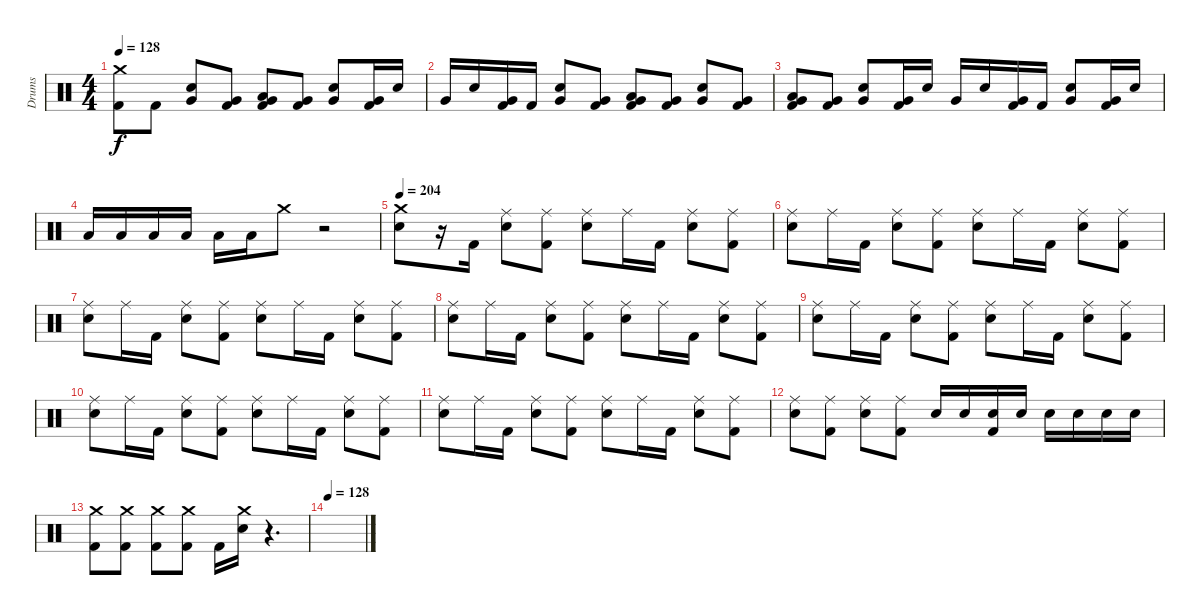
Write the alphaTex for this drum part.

\track ("Drums" "Drums") {instrument percussion}
\staff {score}
\articulation defaults
\ts (4 4)
\tempo 128
\clef neutral
\ks c
("Crash medium (hit)" "Kick (hit) 2").8{dy f} "Kick (hit) 2".8 ("Snare (hit) 2" "Very Low Tom (hit)").8 ("Kick (hit) 2" "Very Low Tom (hit)").8 ("Kick (hit) 2" "Very Low Tom (hit)" "Low Tom (hit)").8 ("Kick (hit) 2" "Very Low Tom (hit)").8 ("Snare (hit) 2" "Very Low Tom (hit)").8 ("Kick (hit) 2" "Very Low Tom (hit)").16 "Snare (hit) 2".16 |
"Very Low Tom (hit)".16 "Snare (hit) 2".16 ("Kick (hit) 2" "Very Low Tom (hit)").16 "Kick (hit) 2".16 ("Snare (hit) 2" "Very Low Tom (hit)").8 ("Kick (hit) 2" "Very Low Tom (hit)").8 ("Kick (hit) 2" "Very Low Tom (hit)" "Low Tom (hit)").8 ("Kick (hit) 2" "Very Low Tom (hit)").8 ("Snare (hit) 2" "Very Low Tom (hit)").8 ("Kick (hit) 2" "Very Low Tom (hit)").8 |
("Kick (hit) 2" "Very Low Tom (hit)" "Low Tom (hit)").8 ("Kick (hit) 2" "Very Low Tom (hit)").8 ("Snare (hit) 2" "Very Low Tom (hit)").8 ("Kick (hit) 2" "Very Low Tom (hit)").16 "Snare (hit) 2".16 "Very Low Tom (hit)".16 "Snare (hit) 2".16 ("Kick (hit) 2" "Very Low Tom (hit)").16 "Kick (hit) 2".16 ("Snare (hit) 2" "Very Low Tom (hit)").8 ("Kick (hit) 2" "Very Low Tom (hit)").16 "Snare (hit) 2".16 |
"Low Tom (hit)".16 "Low Tom (hit)".16 "Low Tom (hit)".16 "Low Tom (hit)".16 "Low Tom (hit)".16 "Low Tom (hit)".16 "Crash medium (hit)".8 r.2 |
\tempo 204
("Crash medium (hit)" "Snare (hit) 2").8 r.16 "Kick (hit) 2".16 ("Ride (middle)" "Snare (hit) 2").8 ("Ride (middle)" "Kick (hit) 2").8 ("Ride (middle)" "Snare (hit) 2").8 "Ride (middle)".16 "Kick (hit) 2".16 ("Ride (middle)" "Snare (hit) 2").8 ("Ride (middle)" "Kick (hit) 2").8 |
("Ride (middle)" "Snare (hit) 2").8 "Ride (middle)".16 "Kick (hit) 2".16 ("Ride (middle)" "Snare (hit) 2").8 ("Ride (middle)" "Kick (hit) 2").8 ("Ride (middle)" "Snare (hit) 2").8 "Ride (middle)".16 "Kick (hit) 2".16 ("Ride (middle)" "Snare (hit) 2").8 ("Ride (middle)" "Kick (hit) 2").8 |
("Ride (middle)" "Snare (hit) 2").8 "Ride (middle)".16 "Kick (hit) 2".16 ("Ride (middle)" "Snare (hit) 2").8 ("Ride (middle)" "Kick (hit) 2").8 ("Ride (middle)" "Snare (hit) 2").8 "Ride (middle)".16 "Kick (hit) 2".16 ("Ride (middle)" "Snare (hit) 2").8 ("Ride (middle)" "Kick (hit) 2").8 |
("Ride (middle)" "Snare (hit) 2").8 "Ride (middle)".16 "Kick (hit) 2".16 ("Ride (middle)" "Snare (hit) 2").8 ("Ride (middle)" "Kick (hit) 2").8 ("Ride (middle)" "Snare (hit) 2").8 "Ride (middle)".16 "Kick (hit) 2".16 ("Ride (middle)" "Snare (hit) 2").8 ("Ride (middle)" "Kick (hit) 2").8 |
("Ride (middle)" "Snare (hit) 2").8 "Ride (middle)".16 "Kick (hit) 2".16 ("Ride (middle)" "Snare (hit) 2").8 ("Ride (middle)" "Kick (hit) 2").8 ("Ride (middle)" "Snare (hit) 2").8 "Ride (middle)".16 "Kick (hit) 2".16 ("Ride (middle)" "Snare (hit) 2").8 ("Ride (middle)" "Kick (hit) 2").8 |
("Ride (middle)" "Snare (hit) 2").8 "Ride (middle)".16 "Kick (hit) 2".16 ("Ride (middle)" "Snare (hit) 2").8 ("Ride (middle)" "Kick (hit) 2").8 ("Ride (middle)" "Snare (hit) 2").8 "Ride (middle)".16 "Kick (hit) 2".16 ("Ride (middle)" "Snare (hit) 2").8 ("Ride (middle)" "Kick (hit) 2").8 |
("Ride (middle)" "Snare (hit) 2").8 "Ride (middle)".16 "Kick (hit) 2".16 ("Ride (middle)" "Snare (hit) 2").8 ("Ride (middle)" "Kick (hit) 2").8 ("Ride (middle)" "Snare (hit) 2").8 "Ride (middle)".16 "Kick (hit) 2".16 ("Ride (middle)" "Snare (hit) 2").8 ("Ride (middle)" "Kick (hit) 2").8 |
("Ride (middle)" "Snare (hit) 2").8 ("Ride (middle)" "Kick (hit) 2").8 ("Ride (middle)" "Snare (hit) 2").8 ("Ride (middle)" "Kick (hit) 2").8 "Snare (hit) 2".16 "Snare (hit) 2".16 ("Snare (hit) 2" "Kick (hit) 2").16 "Snare (hit) 2".16 "Snare (hit) 2".16 "Snare (hit) 2".16 "Snare (hit) 2".16 "Snare (hit) 2".16 |
("Crash medium (hit)" "Kick (hit) 2").8 ("Crash medium (hit)" "Kick (hit) 2").8 ("Crash medium (hit)" "Kick (hit) 2").8 ("Crash medium (hit)" "Kick (hit) 2").8 "Kick (hit) 2".16 ("Crash medium (hit)" "Snare (hit) 2").16 r.4{d} |
\tempo 128
